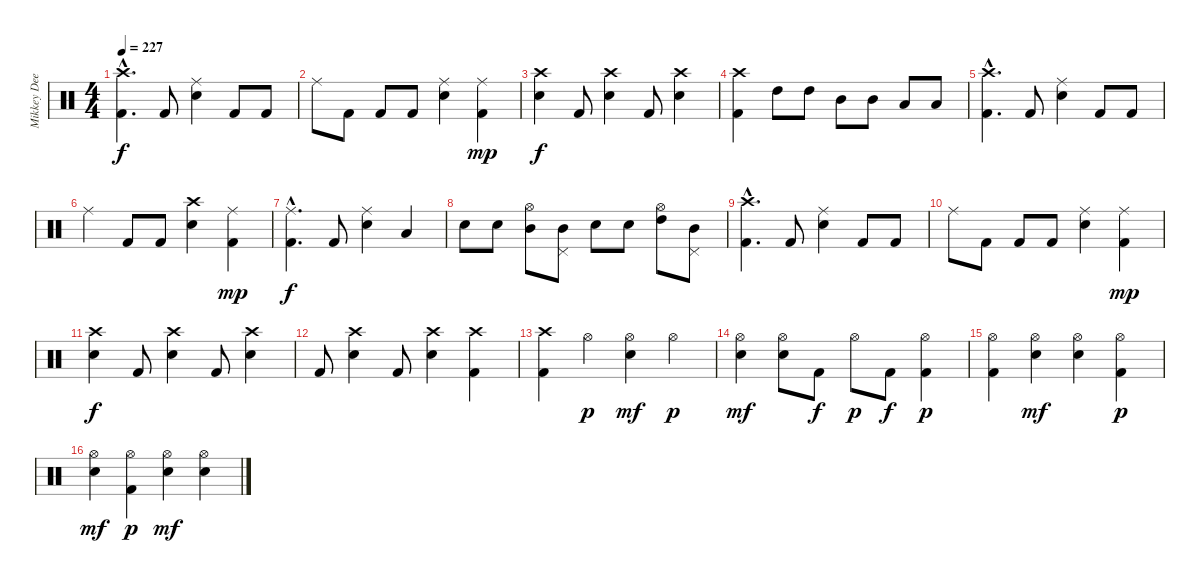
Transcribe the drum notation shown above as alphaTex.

\track ("Mikkey Dee" "Mikkey Dee") {instrument percussion}
\staff {score}
\articulation defaults
\ts (4 4)
\tempo 227
\clef neutral
\ks c
("Kick (hit) 2"{hac} "Crash high (hit)").4{d dy f} "Kick (hit) 2".8 ("Ride (middle)" "Electric Snare (hit)").4 "Kick (hit) 2".8 "Kick (hit) 2".8 |
"Ride (middle)".8 "Kick (hit) 2".8 "Kick (hit) 2".8 "Kick (hit) 2".8 ("Ride (middle)" "Electric Snare (hit)").4 ("Ride (middle)" "Kick (hit) 2").4{dy mp} |
("Electric Snare (hit)" "Crash high (hit)").4{dy f} "Kick (hit) 2".8 ("Crash high (hit)" "Electric Snare (hit)").4 "Kick (hit) 2".8 ("Crash high (hit)" "Electric Snare (hit)").4 |
("Kick (hit) 2" "Crash high (hit)").4 "High Tom (hit)".8 "High Tom (hit)".8 "Mid Tom (hit)".8 "Mid Tom (hit)".8 "Low Tom (hit)".8 "Low Tom (hit)".8 |
("Crash high (hit)" "Kick (hit) 2"{hac}).4{d} "Kick (hit) 2".8 ("Electric Snare (hit)" "Ride (middle)").4 "Kick (hit) 2".8 "Kick (hit) 2".8 |
"Ride (middle)".4 "Kick (hit) 2".8 "Kick (hit) 2".8 ("Electric Snare (hit)" "Crash high (hit)").4 ("Kick (hit) 2" "Ride (middle)").4{dy mp} |
("Ride (middle)" "Kick (hit) 2"{hac}).4{d dy f} "Kick (hit) 2".8 ("Electric Snare (hit)" "Ride (middle)").4 "Low Floor Tom (hit)".4 |
"Electric Snare (hit)".8 "Electric Snare (hit)".8 ("Hi-Hat (open)" "Mid Tom (hit)").8 ("Pedal Hi-Hat (hit)" "Mid Tom (hit)").8 "Electric Snare (hit)".8 "Electric Snare (hit)".8 ("High Tom (hit)" "Hi-Hat (open)").8 ("Mid Tom (hit)" "Pedal Hi-Hat (hit)").8 |
("Crash high (hit)" "Kick (hit) 2"{hac}).4{d} "Kick (hit) 2".8 ("Electric Snare (hit)" "Ride (middle)").4 "Kick (hit) 2".8 "Kick (hit) 2".8 |
"Ride (middle)".8 "Kick (hit) 2".8 "Kick (hit) 2".8 "Kick (hit) 2".8 ("Ride (middle)" "Electric Snare (hit)").4 ("Ride (middle)" "Kick (hit) 2").4{dy mp} |
("Crash high (hit)" "Electric Snare (hit)").4{dy f} "Kick (hit) 2".8 ("Crash high (hit)" "Electric Snare (hit)").4 "Kick (hit) 2".8 ("Electric Snare (hit)" "Crash high (hit)").4 |
"Kick (hit) 2".8 ("Crash high (hit)" "Electric Snare (hit)").4 "Kick (hit) 2".8 ("Electric Snare (hit)" "Crash high (hit)").4 ("Kick (hit) 2" "Crash high (hit)").4 |
("Kick (hit) 2" "Crash high (hit)").4 "Hi-Hat (open)".4{dy p} ("Electric Snare (hit)" "Hi-Hat (open)").4{dy mf} "Hi-Hat (open)".4{dy p} |
("Hi-Hat (open)" "Electric Snare (hit)").4{dy mf} ("Hi-Hat (open)" "Electric Snare (hit)").8 "Kick (hit) 2".8{dy f} "Hi-Hat (open)".8{dy p} "Kick (hit) 2".8{dy f} ("Hi-Hat (open)" "Kick (hit) 2").4{dy p} |
("Kick (hit) 2" "Hi-Hat (open)").4 ("Electric Snare (hit)" "Hi-Hat (open)").4{dy mf} ("Electric Snare (hit)" "Hi-Hat (open)").4 ("Kick (hit) 2" "Hi-Hat (open)").4{dy p} |
("Hi-Hat (open)" "Electric Snare (hit)").4{dy mf} ("Hi-Hat (open)" "Kick (hit) 2").4{dy p} ("Electric Snare (hit)" "Hi-Hat (open)").4{dy mf} ("Electric Snare (hit)" "Hi-Hat (open)").4
